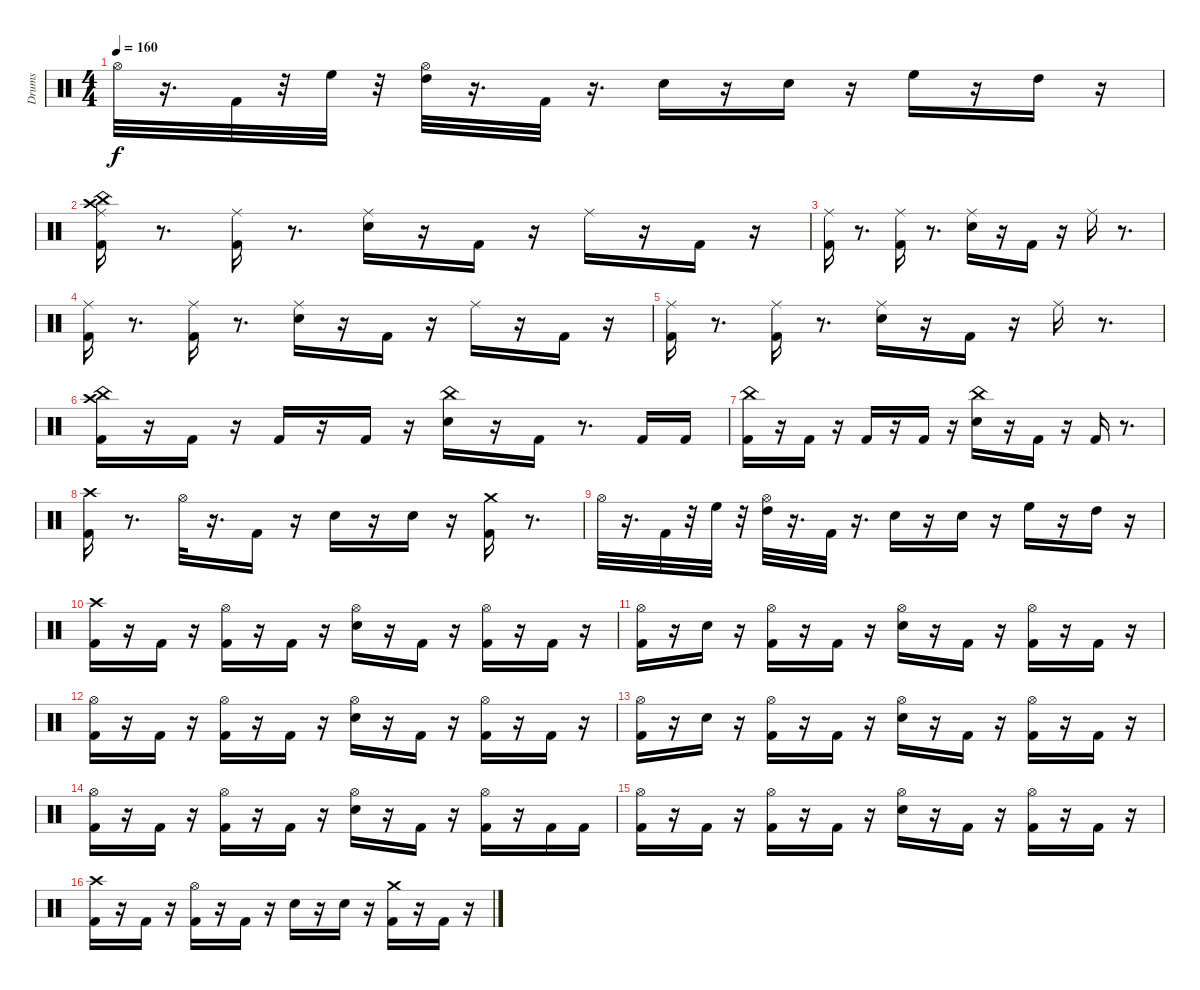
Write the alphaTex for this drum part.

\track ("Drums" "Drums") {instrument percussion}
\staff {score}
\articulation defaults
\ts (4 4)
\tempo 160
\clef neutral
\ks c "Hi-Hat (open)".32{dy f}
r.16{d} "Kick (hit) 2".32 r.32 "High Floor Tom (hit)".32 r.32 ("Hi-Hat (open)" "High Tom (hit)").32 r.16{d} "Kick (hit) 2".32 r.16{d} "Snare (hit) 2".16 r.16 "Snare (hit) 2".16 r.16 "High Floor Tom (hit)".16 r.16 "High Tom (hit)".16 r.16 |
("Kick (hit) 2" "Crash high (hit)" "Ride (middle)" "China (hit)").16 r.8{d} ("Kick (hit) 2" "Ride (middle)").16 r.8{d} ("Snare (hit) 2" "Ride (middle)").16 r.16 "Kick (hit) 2".16 r.16 "Ride (middle)".16 r.16 "Kick (hit) 2".16 r.16 |
("Kick (hit) 2" "Ride (middle)").16 r.8{d} ("Kick (hit) 2" "Ride (middle)").16 r.8{d} ("Snare (hit) 2" "Ride (middle)").16 r.16 "Kick (hit) 2".16 r.16 "Ride (middle)".16 r.8{d} |
("Kick (hit) 2" "Ride (middle)").16 r.8{d} ("Kick (hit) 2" "Ride (middle)").16 r.8{d} ("Snare (hit) 2" "Ride (middle)").16 r.16 "Kick (hit) 2".16 r.16 "Ride (middle)".16 r.16 "Kick (hit) 2".16 r.16 |
("Kick (hit) 2" "Ride (middle)").16 r.8{d} ("Kick (hit) 2" "Ride (middle)").16 r.8{d} ("Snare (hit) 2" "Ride (middle)").16 r.16 "Kick (hit) 2".16 r.16 "Ride (middle)".16 r.8{d} |
("Kick (hit) 2" "Crash high (hit)" "China (hit)").16 r.16 "Kick (hit) 2".16 r.16 "Kick (hit) 2".16 r.16 "Kick (hit) 2".16 r.16 ("Snare (hit) 2" "China (hit)").16 r.16 "Kick (hit) 2".16 r.8{d} "Kick (hit) 2".16 "Kick (hit) 2".16 |
("Kick (hit) 2" "China (hit)").16 r.16 "Kick (hit) 2".16 r.16 "Kick (hit) 2".16 r.16 "Kick (hit) 2".16 r.16 ("Snare (hit) 2" "China (hit)").16 r.16 "Kick (hit) 2".16 r.16 "Kick (hit) 2".16 r.8{d} |
("Kick (hit) 2" "Crash high (hit)").16 r.8{d} "Hi-Hat (open)".32 r.16{d} "Kick (hit) 2".16 r.16 "Snare (hit) 2".16 r.16 "Snare (hit) 2".16 r.16 ("Kick (hit) 2" "Crash medium (hit)").16 r.8{d} |
"Hi-Hat (open)".32 r.16{d} "Kick (hit) 2".32 r.32 "High Floor Tom (hit)".32 r.32 ("Hi-Hat (open)" "High Tom (hit)").32 r.16{d} "Kick (hit) 2".32 r.16{d} "Snare (hit) 2".16 r.16 "Snare (hit) 2".16 r.16 "High Floor Tom (hit)".16 r.16 "High Tom (hit)".16 r.16 |
("Kick (hit) 2" "Crash high (hit)").16 r.16 "Kick (hit) 2".16 r.16 ("Kick (hit) 2" "Hi-Hat (open)").16 r.16 "Kick (hit) 2".16 r.16 ("Snare (hit) 2" "Hi-Hat (open)").16 r.16 "Kick (hit) 2".16 r.16 ("Kick (hit) 2" "Hi-Hat (open)").16 r.16 "Kick (hit) 2".16 r.16 |
("Kick (hit) 2" "Hi-Hat (open)").16 r.16 "Snare (hit) 2".16 r.16 ("Kick (hit) 2" "Hi-Hat (open)").16 r.16 "Kick (hit) 2".16 r.16 ("Snare (hit) 2" "Hi-Hat (open)").16 r.16 "Kick (hit) 2".16 r.16 ("Kick (hit) 2" "Hi-Hat (open)").16 r.16 "Kick (hit) 2".16 r.16 |
("Kick (hit) 2" "Hi-Hat (open)").16 r.16 "Kick (hit) 2".16 r.16 ("Kick (hit) 2" "Hi-Hat (open)").16 r.16 "Kick (hit) 2".16 r.16 ("Snare (hit) 2" "Hi-Hat (open)").16 r.16 "Kick (hit) 2".16 r.16 ("Kick (hit) 2" "Hi-Hat (open)").16 r.16 "Kick (hit) 2".16 r.16 |
("Kick (hit) 2" "Hi-Hat (open)").16 r.16 "Snare (hit) 2".16 r.16 ("Kick (hit) 2" "Hi-Hat (open)").16 r.16 "Kick (hit) 2".16 r.16 ("Snare (hit) 2" "Hi-Hat (open)").16 r.16 "Kick (hit) 2".16 r.16 ("Kick (hit) 2" "Hi-Hat (open)").16 r.16 "Kick (hit) 2".16 r.16 |
("Kick (hit) 2" "Hi-Hat (open)").16 r.16 "Kick (hit) 2".16 r.16 ("Kick (hit) 2" "Hi-Hat (open)").16 r.16 "Kick (hit) 2".16 r.16 ("Snare (hit) 2" "Hi-Hat (open)").16 r.16 "Kick (hit) 2".16 r.16 ("Kick (hit) 2" "Hi-Hat (open)").16 r.16 "Kick (hit) 2".16 "Kick (hit) 2".16 |
("Kick (hit) 2" "Hi-Hat (open)").16 r.16 "Kick (hit) 2".16 r.16 ("Kick (hit) 2" "Hi-Hat (open)").16 r.16 "Kick (hit) 2".16 r.16 ("Snare (hit) 2" "Hi-Hat (open)").16 r.16 "Kick (hit) 2".16 r.16 ("Kick (hit) 2" "Hi-Hat (open)").16 r.16 "Kick (hit) 2".16 r.16 |
("Kick (hit) 2" "Crash high (hit)").16 r.16 "Kick (hit) 2".16 r.16 ("Kick (hit) 2" "Hi-Hat (open)").16 r.16 "Kick (hit) 2".16 r.16 "Snare (hit) 2".16 r.16 "Snare (hit) 2".16 r.16 ("Kick (hit) 2" "Crash medium (hit)").16 r.16 "Kick (hit) 2".16 r.16
